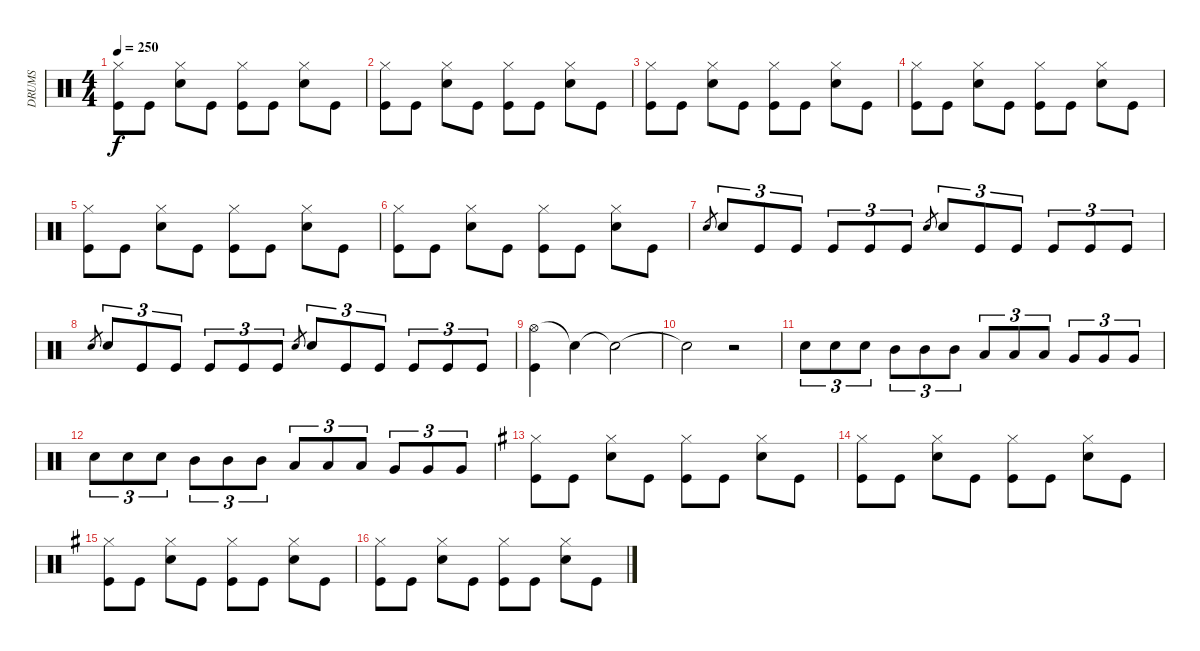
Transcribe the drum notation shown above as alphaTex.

\track ("DRUMS" "DRUMS") {instrument percussion}
\staff {score}
\articulation defaults
\ts (4 4)
\tempo 250
\clef neutral
\ks aminor
("Hi-Hat (closed)" "Kick (hit)").8{dy f} "Kick (hit)".8 ("Hi-Hat (closed)" "Snare (hit) 2").8 "Kick (hit)".8 ("Hi-Hat (closed)" "Kick (hit)").8 "Kick (hit)".8 ("Hi-Hat (closed)" "Snare (hit) 2").8 "Kick (hit)".8 |
("Hi-Hat (closed)" "Kick (hit)").8 "Kick (hit)".8 ("Hi-Hat (closed)" "Snare (hit) 2").8 "Kick (hit)".8 ("Hi-Hat (closed)" "Kick (hit)").8 "Kick (hit)".8 ("Hi-Hat (closed)" "Snare (hit) 2").8 "Kick (hit)".8 |
("Hi-Hat (closed)" "Kick (hit)").8 "Kick (hit)".8 ("Hi-Hat (closed)" "Snare (hit) 2").8 "Kick (hit)".8 ("Hi-Hat (closed)" "Kick (hit)").8 "Kick (hit)".8 ("Hi-Hat (closed)" "Snare (hit) 2").8 "Kick (hit)".8 |
("Hi-Hat (closed)" "Kick (hit)").8 "Kick (hit)".8 ("Hi-Hat (closed)" "Snare (hit) 2").8 "Kick (hit)".8 ("Hi-Hat (closed)" "Kick (hit)").8 "Kick (hit)".8 ("Hi-Hat (closed)" "Snare (hit) 2").8 "Kick (hit)".8 |
("Hi-Hat (closed)" "Kick (hit)").8 "Kick (hit)".8 ("Hi-Hat (closed)" "Snare (hit) 2").8 "Kick (hit)".8 ("Hi-Hat (closed)" "Kick (hit)").8 "Kick (hit)".8 ("Hi-Hat (closed)" "Snare (hit) 2").8 "Kick (hit)".8 |
("Hi-Hat (closed)" "Kick (hit)").8 "Kick (hit)".8 ("Hi-Hat (closed)" "Snare (hit) 2").8 "Kick (hit)".8 ("Hi-Hat (closed)" "Kick (hit)").8 "Kick (hit)".8 ("Hi-Hat (closed)" "Snare (hit) 2").8 "Kick (hit)".8 |
"Snare (hit) 2".8{gr} "Snare (hit) 2".8{tu (3 2)} "Kick (hit)".8{tu (3 2)} "Kick (hit)".8{tu (3 2)} "Kick (hit)".8{tu (3 2)} "Kick (hit)".8{tu (3 2)} "Kick (hit)".8{tu (3 2)} "Snare (hit) 2".8{gr} "Snare (hit) 2".8{tu (3 2)} "Kick (hit)".8{tu (3 2)} "Kick (hit)".8{tu (3 2)} "Kick (hit)".8{tu (3 2)} "Kick (hit)".8{tu (3 2)} "Kick (hit)".8{tu (3 2)} |
"Snare (hit) 2".8{gr} "Snare (hit) 2".8{tu (3 2)} "Kick (hit)".8{tu (3 2)} "Kick (hit)".8{tu (3 2)} "Kick (hit)".8{tu (3 2)} "Kick (hit)".8{tu (3 2)} "Kick (hit)".8{tu (3 2)} "Snare (hit) 2".8{gr} "Snare (hit) 2".8{tu (3 2)} "Kick (hit)".8{tu (3 2)} "Kick (hit)".8{tu (3 2)} "Kick (hit)".8{tu (3 2)} "Kick (hit)".8{tu (3 2)} "Kick (hit)".8{tu (3 2)} |
("Hi-Hat (open)" "Kick (hit)").4 "Snare (hit)"{t}.4 "Snare (hit)"{t}.2 |
"Snare (hit)"{t}.2 r.2 |
"Snare (hit) 2".8{tu (3 2)} "Snare (hit) 2".8{tu (3 2)} "Snare (hit) 2".8{tu (3 2)} "Mid Tom (hit)".8{tu (3 2)} "Mid Tom (hit)".8{tu (3 2)} "Mid Tom (hit)".8{tu (3 2)} "Low Tom (hit)".8{tu (3 2)} "Low Tom (hit)".8{tu (3 2)} "Low Tom (hit)".8{tu (3 2)} "Very Low Tom (hit)".8{tu (3 2)} "Very Low Tom (hit)".8{tu (3 2)} "Very Low Tom (hit)".8{tu (3 2)} |
"Snare (hit) 2".8{tu (3 2)} "Snare (hit) 2".8{tu (3 2)} "Snare (hit) 2".8{tu (3 2)} "Mid Tom (hit)".8{tu (3 2)} "Mid Tom (hit)".8{tu (3 2)} "Mid Tom (hit)".8{tu (3 2)} "Low Tom (hit)".8{tu (3 2)} "Low Tom (hit)".8{tu (3 2)} "Low Tom (hit)".8{tu (3 2)} "Very Low Tom (hit)".8{tu (3 2)} "Very Low Tom (hit)".8{tu (3 2)} "Very Low Tom (hit)".8{tu (3 2)} |
\ks eminor
("Hi-Hat (closed)" "Kick (hit)").8 "Kick (hit)".8 ("Hi-Hat (closed)" "Snare (hit) 2").8 "Kick (hit)".8 ("Hi-Hat (closed)" "Kick (hit)").8 "Kick (hit)".8 ("Hi-Hat (closed)" "Snare (hit) 2").8 "Kick (hit)".8 |
("Hi-Hat (closed)" "Kick (hit)").8 "Kick (hit)".8 ("Hi-Hat (closed)" "Snare (hit) 2").8 "Kick (hit)".8 ("Hi-Hat (closed)" "Kick (hit)").8 "Kick (hit)".8 ("Hi-Hat (closed)" "Snare (hit) 2").8 "Kick (hit)".8 |
("Hi-Hat (closed)" "Kick (hit)").8 "Kick (hit)".8 ("Hi-Hat (closed)" "Snare (hit) 2").8 "Kick (hit)".8 ("Hi-Hat (closed)" "Kick (hit)").8 "Kick (hit)".8 ("Hi-Hat (closed)" "Snare (hit) 2").8 "Kick (hit)".8 |
("Hi-Hat (closed)" "Kick (hit)").8 "Kick (hit)".8 ("Hi-Hat (closed)" "Snare (hit) 2").8 "Kick (hit)".8 ("Hi-Hat (closed)" "Kick (hit)").8 "Kick (hit)".8 ("Hi-Hat (closed)" "Snare (hit) 2").8 "Kick (hit)".8
